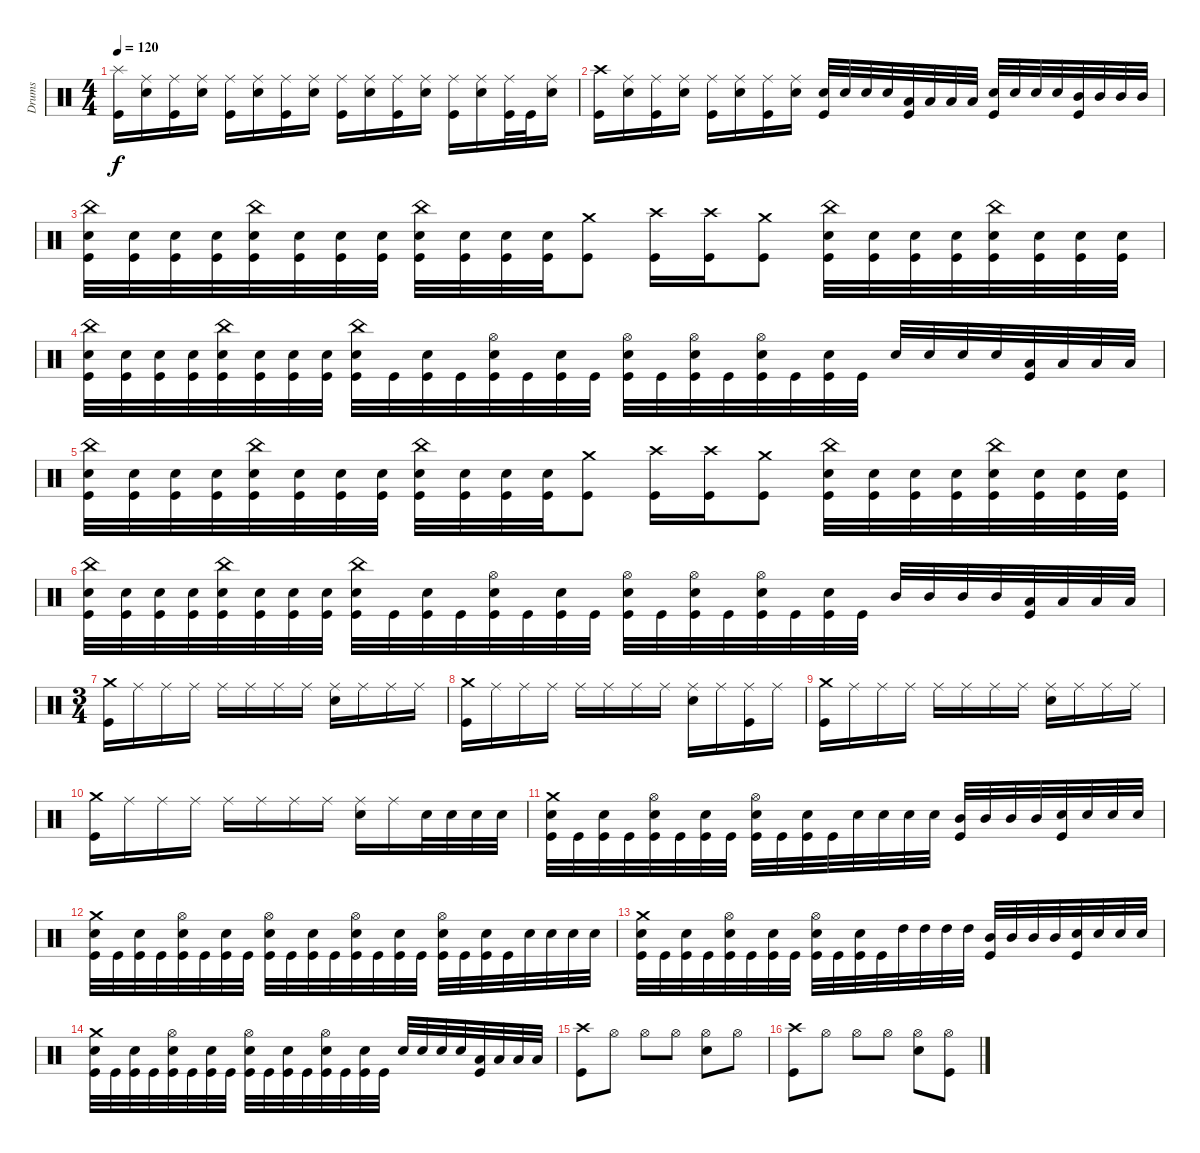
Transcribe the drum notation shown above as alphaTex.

\track ("Drums" "Drums") {instrument percussion}
\staff {score}
\articulation defaults
\ts (4 4)
\tempo 120
\clef neutral
\ks c
("Kick (hit)" "Splash (hit)").16{dy f} ("Snare (hit) 2" "Ride (middle)").16 ("Kick (hit)" "Ride (middle)").16 ("Snare (hit) 2" "Ride (middle)").16 ("Kick (hit)" "Ride (middle)").16 ("Snare (hit) 2" "Ride (middle)").16 ("Kick (hit)" "Ride (middle)").16 ("Snare (hit) 2" "Ride (middle)").16 ("Kick (hit)" "Ride (middle)").16 ("Snare (hit) 2" "Ride (middle)").16 ("Kick (hit)" "Ride (middle)").16 ("Snare (hit) 2" "Ride (middle)").16 ("Kick (hit)" "Ride (middle)").16 ("Snare (hit) 2" "Ride (middle)").16 ("Kick (hit)" "Ride (middle)").32 "Kick (hit)".32 ("Snare (hit) 2" "Ride (middle)").16 |
("Kick (hit)" "Crash high (hit)").16 ("Snare (hit) 2" "Ride (middle)").16 ("Kick (hit)" "Ride (middle)").16 ("Snare (hit) 2" "Ride (middle)").16 ("Kick (hit)" "Ride (middle)").16 ("Snare (hit) 2" "Ride (middle)").16 ("Kick (hit)" "Ride (middle)").16 ("Snare (hit) 2" "Ride (middle)").16 ("Snare (hit) 2" "Kick (hit)").32 "Snare (hit) 2".32 "Snare (hit) 2".32 "Snare (hit) 2".32 ("Low Tom (hit)" "Kick (hit)").32 "Low Tom (hit)".32 "Low Tom (hit)".32 "Low Tom (hit)".32 ("Snare (hit) 2" "Kick (hit)").32 "Snare (hit) 2".32 "Snare (hit) 2".32 "Snare (hit) 2".32 ("Mid Tom (hit)" "Kick (hit)").32 "Mid Tom (hit)".32 "Mid Tom (hit)".32 "Mid Tom (hit)".32 |
("Snare (hit) 2" "Kick (hit)" "China (hit)").32 ("Snare (hit) 2" "Kick (hit)").32 ("Snare (hit) 2" "Kick (hit)").32 ("Snare (hit) 2" "Kick (hit)").32 ("Snare (hit) 2" "Kick (hit)" "China (hit)").32 ("Snare (hit) 2" "Kick (hit)").32 ("Snare (hit) 2" "Kick (hit)").32 ("Snare (hit) 2" "Kick (hit)").32 ("Snare (hit) 2" "Kick (hit)" "China (hit)").32 ("Snare (hit) 2" "Kick (hit)").32 ("Snare (hit) 2" "Kick (hit)").32 ("Snare (hit) 2" "Kick (hit)").32 ("Kick (hit)" "Crash medium (hit)").8 ("Kick (hit)" "Crash high (hit)").16 ("Kick (hit)" "Crash high (hit)").16 ("Kick (hit)" "Crash medium (hit)").8 ("Snare (hit) 2" "Kick (hit)" "China (hit)").32 ("Snare (hit) 2" "Kick (hit)").32 ("Snare (hit) 2" "Kick (hit)").32 ("Snare (hit) 2" "Kick (hit)").32 ("Snare (hit) 2" "Kick (hit)" "China (hit)").32 ("Snare (hit) 2" "Kick (hit)").32 ("Snare (hit) 2" "Kick (hit)").32 ("Snare (hit) 2" "Kick (hit)").32 |
("Snare (hit) 2" "Kick (hit)" "China (hit)").32 ("Snare (hit) 2" "Kick (hit)").32 ("Snare (hit) 2" "Kick (hit)").32 ("Snare (hit) 2" "Kick (hit)").32 ("Snare (hit) 2" "Kick (hit)" "China (hit)").32 ("Snare (hit) 2" "Kick (hit)").32 ("Snare (hit) 2" "Kick (hit)").32 ("Kick (hit)" "Snare (hit) 2").32 ("Kick (hit)" "Snare (hit) 2" "China (hit)").32 "Kick (hit)".32 ("Kick (hit)" "Snare (hit) 2").32 "Kick (hit)".32 ("Kick (hit)" "Snare (hit) 2" "Hi-Hat (open)").32 "Kick (hit)".32 ("Kick (hit)" "Snare (hit) 2").32 "Kick (hit)".32 ("Kick (hit)" "Snare (hit) 2" "Hi-Hat (open)").32 "Kick (hit)".32 ("Kick (hit)" "Snare (hit) 2" "Hi-Hat (open)").32 "Kick (hit)".32 ("Kick (hit)" "Snare (hit) 2" "Hi-Hat (open)").32 "Kick (hit)".32 ("Kick (hit)" "Snare (hit) 2").32 "Kick (hit)".32 "Snare (hit) 2".32 "Snare (hit) 2".32 "Snare (hit) 2".32 "Snare (hit) 2".32 ("Low Tom (hit)" "Kick (hit)").32 "Low Tom (hit)".32 "Low Tom (hit)".32 "Low Tom (hit)".32 |
("Snare (hit) 2" "Kick (hit)" "China (hit)").32 ("Snare (hit) 2" "Kick (hit)").32 ("Snare (hit) 2" "Kick (hit)").32 ("Snare (hit) 2" "Kick (hit)").32 ("Snare (hit) 2" "Kick (hit)" "China (hit)").32 ("Snare (hit) 2" "Kick (hit)").32 ("Snare (hit) 2" "Kick (hit)").32 ("Snare (hit) 2" "Kick (hit)").32 ("Snare (hit) 2" "Kick (hit)" "China (hit)").32 ("Snare (hit) 2" "Kick (hit)").32 ("Snare (hit) 2" "Kick (hit)").32 ("Snare (hit) 2" "Kick (hit)").32 ("Kick (hit)" "Crash medium (hit)").8 ("Kick (hit)" "Crash high (hit)").16 ("Kick (hit)" "Crash high (hit)").16 ("Kick (hit)" "Crash medium (hit)").8 ("Snare (hit) 2" "Kick (hit)" "China (hit)").32 ("Snare (hit) 2" "Kick (hit)").32 ("Snare (hit) 2" "Kick (hit)").32 ("Snare (hit) 2" "Kick (hit)").32 ("Snare (hit) 2" "Kick (hit)" "China (hit)").32 ("Snare (hit) 2" "Kick (hit)").32 ("Snare (hit) 2" "Kick (hit)").32 ("Snare (hit) 2" "Kick (hit)").32 |
("Snare (hit) 2" "Kick (hit)" "China (hit)").32 ("Snare (hit) 2" "Kick (hit)").32 ("Snare (hit) 2" "Kick (hit)").32 ("Snare (hit) 2" "Kick (hit)").32 ("Snare (hit) 2" "Kick (hit)" "China (hit)").32 ("Snare (hit) 2" "Kick (hit)").32 ("Snare (hit) 2" "Kick (hit)").32 ("Kick (hit)" "Snare (hit) 2").32 ("Kick (hit)" "Snare (hit) 2" "China (hit)").32 "Kick (hit)".32 ("Kick (hit)" "Snare (hit) 2").32 "Kick (hit)".32 ("Kick (hit)" "Snare (hit) 2" "Hi-Hat (open)").32 "Kick (hit)".32 ("Kick (hit)" "Snare (hit) 2").32 "Kick (hit)".32 ("Kick (hit)" "Snare (hit) 2" "Hi-Hat (open)").32 "Kick (hit)".32 ("Kick (hit)" "Snare (hit) 2" "Hi-Hat (open)").32 "Kick (hit)".32 ("Kick (hit)" "Snare (hit) 2" "Hi-Hat (open)").32 "Kick (hit)".32 ("Kick (hit)" "Snare (hit) 2").32 "Kick (hit)".32 "Mid Tom (hit)".32 "Mid Tom (hit)".32 "Mid Tom (hit)".32 "Mid Tom (hit)".32 ("Kick (hit)" "Low Tom (hit)").32 "Low Tom (hit)".32 "Low Tom (hit)".32 "Low Tom (hit)".32 |
\ts (3 4)
("Kick (hit)" "Crash medium (hit)").16 "Ride (middle)".16 "Ride (middle)".16 "Ride (middle)".16 "Ride (middle)".16 "Ride (middle)".16 "Ride (middle)".16 "Ride (middle)".16 ("Ride (middle)" "Snare (hit) 2").16 "Ride (middle)".16 "Ride (middle)".16 "Ride (middle)".16 |
("Kick (hit)" "Crash medium (hit)").16 "Ride (middle)".16 "Ride (middle)".16 "Ride (middle)".16 "Ride (middle)".16 "Ride (middle)".16 "Ride (middle)".16 "Ride (middle)".16 ("Ride (middle)" "Snare (hit) 2").16 "Ride (middle)".16 ("Ride (middle)" "Kick (hit)").16 "Ride (middle)".16 |
("Kick (hit)" "Crash medium (hit)").16 "Ride (middle)".16 "Ride (middle)".16 "Ride (middle)".16 "Ride (middle)".16 "Ride (middle)".16 "Ride (middle)".16 "Ride (middle)".16 ("Ride (middle)" "Snare (hit) 2").16 "Ride (middle)".16 "Ride (middle)".16 "Ride (middle)".16 |
("Kick (hit)" "Crash medium (hit)").16 "Ride (middle)".16 "Ride (middle)".16 "Ride (middle)".16 "Ride (middle)".16 "Ride (middle)".16 "Ride (middle)".16 "Ride (middle)".16 ("Ride (middle)" "Snare (hit) 2").16 "Ride (middle)".16 "Snare (hit) 2".32 "Snare (hit) 2".32 "Snare (hit) 2".32 "Snare (hit) 2".32 |
("Kick (hit)" "Snare (hit) 2" "Crash medium (hit)").32 "Kick (hit)".32 ("Kick (hit)" "Snare (hit) 2").32 "Kick (hit)".32 ("Kick (hit)" "Snare (hit) 2" "Hi-Hat (open)").32 "Kick (hit)".32 ("Kick (hit)" "Snare (hit) 2").32 "Kick (hit)".32 ("Kick (hit)" "Snare (hit) 2" "Hi-Hat (open)").32 "Kick (hit)".32 ("Kick (hit)" "Snare (hit) 2").32 "Kick (hit)".32 "Snare (hit) 2".32 "Snare (hit) 2".32 "Snare (hit) 2".32 "Snare (hit) 2".32 ("Mid Tom (hit)" "Kick (hit)").32 "Mid Tom (hit)".32 "Mid Tom (hit)".32 "Mid Tom (hit)".32 ("Snare (hit) 2" "Kick (hit)").32 "Snare (hit) 2".32 "Snare (hit) 2".32 "Snare (hit) 2".32 |
("Kick (hit)" "Snare (hit) 2" "Crash medium (hit)").32 "Kick (hit)".32 ("Kick (hit)" "Snare (hit) 2").32 "Kick (hit)".32 ("Kick (hit)" "Snare (hit) 2" "Hi-Hat (open)").32 "Kick (hit)".32 ("Kick (hit)" "Snare (hit) 2").32 "Kick (hit)".32 ("Kick (hit)" "Snare (hit) 2" "Hi-Hat (open)").32 "Kick (hit)".32 ("Kick (hit)" "Snare (hit) 2").32 "Kick (hit)".32 ("Kick (hit)" "Snare (hit) 2" "Hi-Hat (open)").32 "Kick (hit)".32 ("Kick (hit)" "Snare (hit) 2").32 "Kick (hit)".32 ("Kick (hit)" "Snare (hit) 2" "Hi-Hat (open)").32 "Kick (hit)".32 ("Kick (hit)" "Snare (hit) 2").32 "Kick (hit)".32 "Snare (hit) 2".32 "Snare (hit) 2".32 "Snare (hit) 2".32 "Snare (hit) 2".32 |
("Kick (hit)" "Snare (hit) 2" "Crash medium (hit)").32 "Kick (hit)".32 ("Kick (hit)" "Snare (hit) 2").32 "Kick (hit)".32 ("Kick (hit)" "Snare (hit) 2" "Hi-Hat (open)").32 "Kick (hit)".32 ("Kick (hit)" "Snare (hit) 2").32 "Kick (hit)".32 ("Kick (hit)" "Snare (hit) 2" "Hi-Hat (open)").32 "Kick (hit)".32 ("Kick (hit)" "Snare (hit) 2").32 "Kick (hit)".32 "High Tom (hit)".32 "High Tom (hit)".32 "High Tom (hit)".32 "High Tom (hit)".32 ("Mid Tom (hit)" "Kick (hit)").32 "Mid Tom (hit)".32 "Mid Tom (hit)".32 "Mid Tom (hit)".32 ("Snare (hit) 2" "Kick (hit)").32 "Snare (hit) 2".32 "Snare (hit) 2".32 "Snare (hit) 2".32 |
("Kick (hit)" "Snare (hit) 2" "Crash medium (hit)").32 "Kick (hit)".32 ("Kick (hit)" "Snare (hit) 2").32 "Kick (hit)".32 ("Kick (hit)" "Snare (hit) 2" "Hi-Hat (open)").32 "Kick (hit)".32 ("Kick (hit)" "Snare (hit) 2").32 "Kick (hit)".32 ("Kick (hit)" "Snare (hit) 2" "Hi-Hat (open)").32 "Kick (hit)".32 ("Kick (hit)" "Snare (hit) 2").32 "Kick (hit)".32 ("Kick (hit)" "Snare (hit) 2" "Hi-Hat (open)").32 "Kick (hit)".32 ("Kick (hit)" "Snare (hit) 2").32 "Kick (hit)".32 "Snare (hit) 2".32 "Snare (hit) 2".32 "Snare (hit) 2".32 "Snare (hit) 2".32 ("Low Tom (hit)" "Kick (hit)").32 "Low Tom (hit)".32 "Low Tom (hit)".32 "Low Tom (hit)".32 |
("Kick (hit)" "Crash high (hit)").8 "Hi-Hat (open)".8 "Hi-Hat (open)".8 "Hi-Hat (open)".8 ("Hi-Hat (open)" "Snare (hit) 2").8 "Hi-Hat (open)".8 |
("Kick (hit)" "Crash high (hit)").8 "Hi-Hat (open)".8 "Hi-Hat (open)".8 "Hi-Hat (open)".8 ("Hi-Hat (open)" "Snare (hit) 2").8 ("Hi-Hat (open)" "Kick (hit)").8
